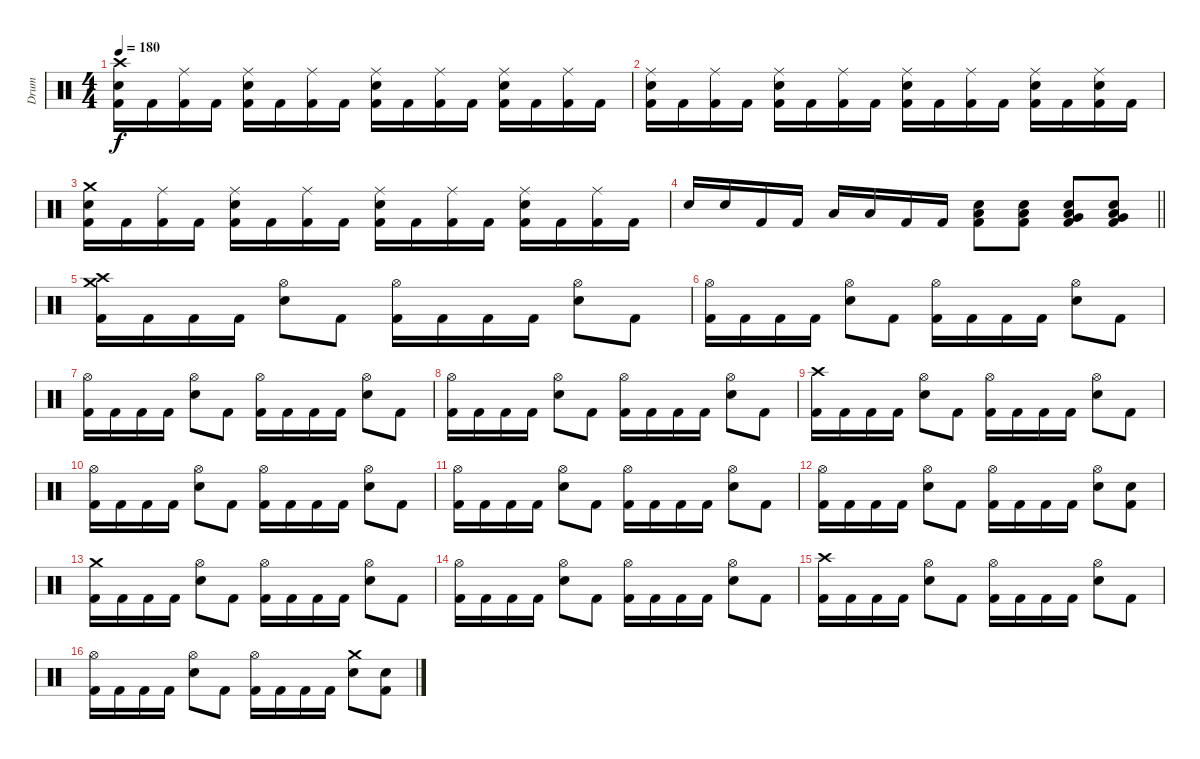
\track ("Drum" "Drum") {instrument percussion}
\staff {score}
\articulation defaults
\ts (4 4)
\tempo 180
\clef neutral
\ks c
("Crash high (hit)" "Snare (hit) 2" "Kick (hit) 2").16{dy f} "Kick (hit) 2".16 ("Ride (middle)" "Kick (hit) 2").16 "Kick (hit) 2".16 ("Ride (middle)" "Snare (hit) 2" "Kick (hit) 2").16 "Kick (hit) 2".16 ("Ride (middle)" "Kick (hit) 2").16 "Kick (hit) 2".16 ("Ride (middle)" "Snare (hit) 2" "Kick (hit) 2").16 "Kick (hit) 2".16 ("Ride (middle)" "Kick (hit) 2").16 "Kick (hit) 2".16 ("Ride (middle)" "Snare (hit) 2" "Kick (hit) 2").16 "Kick (hit) 2".16 ("Ride (middle)" "Kick (hit) 2").16 "Kick (hit) 2".16 |
("Ride (middle)" "Snare (hit) 2" "Kick (hit) 2").16 "Kick (hit) 2".16 ("Ride (middle)" "Kick (hit) 2").16 "Kick (hit) 2".16 ("Ride (middle)" "Snare (hit) 2" "Kick (hit) 2").16 "Kick (hit) 2".16 ("Ride (middle)" "Kick (hit) 2").16 "Kick (hit) 2".16 ("Ride (middle)" "Snare (hit) 2" "Kick (hit) 2").16 "Kick (hit) 2".16 ("Ride (middle)" "Kick (hit) 2").16 "Kick (hit) 2".16 ("Ride (middle)" "Snare (hit) 2" "Kick (hit) 2").16 "Kick (hit) 2".16 ("Ride (middle)" "Snare (hit) 2" "Kick (hit) 2").16 "Kick (hit) 2".16 |
("Crash medium (hit)" "Snare (hit) 2" "Kick (hit) 2").16 "Kick (hit) 2".16 ("Ride (middle)" "Kick (hit) 2").16 "Kick (hit) 2".16 ("Ride (middle)" "Snare (hit) 2" "Kick (hit) 2").16 "Kick (hit) 2".16 ("Ride (middle)" "Kick (hit) 2").16 "Kick (hit) 2".16 ("Ride (middle)" "Snare (hit) 2" "Kick (hit) 2").16 "Kick (hit) 2".16 ("Ride (middle)" "Kick (hit) 2").16 "Kick (hit) 2".16 ("Ride (middle)" "Snare (hit) 2" "Kick (hit) 2").16 "Kick (hit) 2".16 ("Ride (middle)" "Kick (hit) 2").16 "Kick (hit) 2".16 |
\barLineRight lightlight "Snare (hit) 2".16 "Snare (hit) 2".16 "Kick (hit) 2".16 "Kick (hit) 2".16 "Low Floor Tom (hit)".16 "Low Floor Tom (hit)".16 "Kick (hit) 2".16 "Kick (hit) 2".16
("Low Floor Tom (hit)" "Snare (hit) 2" "Kick (hit) 2").8 ("Low Floor Tom (hit)" "Snare (hit) 2" "Kick (hit) 2").8 ("Very Low Tom (hit)" "Low Floor Tom (hit)" "Snare (hit) 2" "Kick (hit) 2").8 ("Very Low Tom (hit)" "Low Floor Tom (hit)" "Snare (hit) 2" "Kick (hit) 2").8 |
\section ("" "")
("Crash high (hit)" "Crash medium (hit)" "Kick (hit) 2").16 "Kick (hit) 2".16 "Kick (hit) 2".16 "Kick (hit) 2".16 ("Hi-Hat (open)" "Snare (hit) 2").8 "Kick (hit) 2".8 ("Hi-Hat (open)" "Kick (hit) 2").16 "Kick (hit) 2".16 "Kick (hit) 2".16 "Kick (hit) 2".16 ("Hi-Hat (open)" "Snare (hit) 2").8 "Kick (hit) 2".8 |
("Hi-Hat (open)" "Kick (hit) 2").16 "Kick (hit) 2".16 "Kick (hit) 2".16 "Kick (hit) 2".16 ("Hi-Hat (open)" "Snare (hit) 2").8 "Kick (hit) 2".8 ("Hi-Hat (open)" "Kick (hit) 2").16 "Kick (hit) 2".16 "Kick (hit) 2".16 "Kick (hit) 2".16 ("Hi-Hat (open)" "Snare (hit) 2").8 "Kick (hit) 2".8 |
("Hi-Hat (open)" "Kick (hit) 2").16 "Kick (hit) 2".16 "Kick (hit) 2".16 "Kick (hit) 2".16 ("Hi-Hat (open)" "Snare (hit) 2").8 "Kick (hit) 2".8 ("Hi-Hat (open)" "Kick (hit) 2").16 "Kick (hit) 2".16 "Kick (hit) 2".16 "Kick (hit) 2".16 ("Hi-Hat (open)" "Snare (hit) 2").8 "Kick (hit) 2".8 |
("Hi-Hat (open)" "Kick (hit) 2").16 "Kick (hit) 2".16 "Kick (hit) 2".16 "Kick (hit) 2".16 ("Hi-Hat (open)" "Snare (hit) 2").8 "Kick (hit) 2".8 ("Hi-Hat (open)" "Kick (hit) 2").16 "Kick (hit) 2".16 "Kick (hit) 2".16 "Kick (hit) 2".16 ("Hi-Hat (open)" "Snare (hit) 2").8 "Kick (hit) 2".8 |
("Crash high (hit)" "Kick (hit) 2").16 "Kick (hit) 2".16 "Kick (hit) 2".16 "Kick (hit) 2".16 ("Hi-Hat (open)" "Snare (hit) 2").8 "Kick (hit) 2".8 ("Hi-Hat (open)" "Kick (hit) 2").16 "Kick (hit) 2".16 "Kick (hit) 2".16 "Kick (hit) 2".16 ("Hi-Hat (open)" "Snare (hit) 2").8 "Kick (hit) 2".8 |
("Hi-Hat (open)" "Kick (hit) 2").16 "Kick (hit) 2".16 "Kick (hit) 2".16 "Kick (hit) 2".16 ("Hi-Hat (open)" "Snare (hit) 2").8 "Kick (hit) 2".8 ("Hi-Hat (open)" "Kick (hit) 2").16 "Kick (hit) 2".16 "Kick (hit) 2".16 "Kick (hit) 2".16 ("Hi-Hat (open)" "Snare (hit) 2").8 "Kick (hit) 2".8 |
("Hi-Hat (open)" "Kick (hit) 2").16 "Kick (hit) 2".16 "Kick (hit) 2".16 "Kick (hit) 2".16 ("Hi-Hat (open)" "Snare (hit) 2").8 "Kick (hit) 2".8 ("Hi-Hat (open)" "Kick (hit) 2").16 "Kick (hit) 2".16 "Kick (hit) 2".16 "Kick (hit) 2".16 ("Hi-Hat (open)" "Snare (hit) 2").8 "Kick (hit) 2".8 |
("Hi-Hat (open)" "Kick (hit) 2").16 "Kick (hit) 2".16 "Kick (hit) 2".16 "Kick (hit) 2".16 ("Hi-Hat (open)" "Snare (hit) 2").8 "Kick (hit) 2".8 ("Hi-Hat (open)" "Kick (hit) 2").16 "Kick (hit) 2".16 "Kick (hit) 2".16 "Kick (hit) 2".16 ("Hi-Hat (open)" "Snare (hit) 2").8 ("Snare (hit) 2" "Kick (hit) 2").8 |
("Crash medium (hit)" "Kick (hit) 2").16 "Kick (hit) 2".16 "Kick (hit) 2".16 "Kick (hit) 2".16 ("Hi-Hat (open)" "Snare (hit) 2").8 "Kick (hit) 2".8 ("Hi-Hat (open)" "Kick (hit) 2").16 "Kick (hit) 2".16 "Kick (hit) 2".16 "Kick (hit) 2".16 ("Hi-Hat (open)" "Snare (hit) 2").8 "Kick (hit) 2".8 |
("Hi-Hat (open)" "Kick (hit) 2").16 "Kick (hit) 2".16 "Kick (hit) 2".16 "Kick (hit) 2".16 ("Hi-Hat (open)" "Snare (hit) 2").8 "Kick (hit) 2".8 ("Hi-Hat (open)" "Kick (hit) 2").16 "Kick (hit) 2".16 "Kick (hit) 2".16 "Kick (hit) 2".16 ("Hi-Hat (open)" "Snare (hit) 2").8 "Kick (hit) 2".8 |
("Crash high (hit)" "Kick (hit) 2").16 "Kick (hit) 2".16 "Kick (hit) 2".16 "Kick (hit) 2".16 ("Hi-Hat (open)" "Snare (hit) 2").8 "Kick (hit) 2".8 ("Hi-Hat (open)" "Kick (hit) 2").16 "Kick (hit) 2".16 "Kick (hit) 2".16 "Kick (hit) 2".16 ("Hi-Hat (open)" "Snare (hit) 2").8 "Kick (hit) 2".8 |
("Hi-Hat (open)" "Kick (hit) 2").16 "Kick (hit) 2".16 "Kick (hit) 2".16 "Kick (hit) 2".16 ("Hi-Hat (open)" "Snare (hit) 2").8 "Kick (hit) 2".8 ("Hi-Hat (open)" "Kick (hit) 2").16 "Kick (hit) 2".16 "Kick (hit) 2".16 "Kick (hit) 2".16 ("Crash medium (hit)" "Snare (hit) 2").8 ("Snare (hit) 2" "Kick (hit) 2").8
